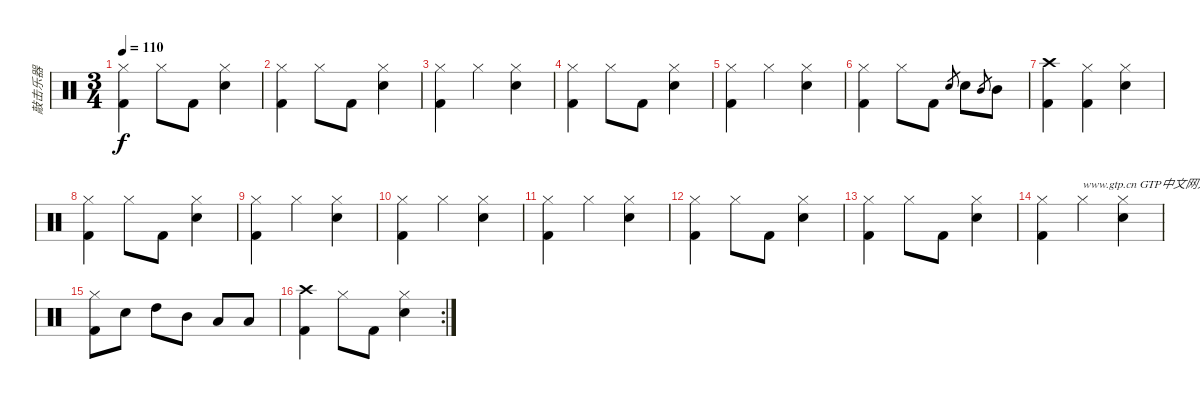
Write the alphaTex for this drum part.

\track ("敲击乐器" "敲击乐器") {instrument percussion}
\staff {score}
\articulation defaults
\ts (3 4)
\tempo 110
\clef neutral
\ks c
("Hi-Hat (closed)" "Kick (hit) 2").4{dy f} "Hi-Hat (closed)".8 "Kick (hit) 2".8 ("Hi-Hat (closed)" "Electric Snare (hit)").4 |
("Hi-Hat (closed)" "Kick (hit) 2").4 "Hi-Hat (closed)".8 "Kick (hit) 2".8 ("Hi-Hat (closed)" "Electric Snare (hit)").4 |
("Hi-Hat (closed)" "Kick (hit) 2").4 "Hi-Hat (closed)".4 ("Hi-Hat (closed)" "Electric Snare (hit)").4 |
("Hi-Hat (closed)" "Kick (hit) 2").4 "Hi-Hat (closed)".8 "Kick (hit) 2".8 ("Hi-Hat (closed)" "Electric Snare (hit)").4 |
("Hi-Hat (closed)" "Kick (hit) 2").4 "Hi-Hat (closed)".4 ("Hi-Hat (closed)" "Electric Snare (hit)").4 |
("Hi-Hat (closed)" "Kick (hit) 2").4 "Hi-Hat (closed)".8 "Kick (hit) 2".8 "Electric Snare (hit)".8{gr} "Electric Snare (hit)".8 "Mid Tom (hit)".8{gr} "Mid Tom (hit)".8 |
("Crash high (hit)" "Kick (hit) 2").4 ("Hi-Hat (closed)" "Kick (hit) 2").4 ("Hi-Hat (closed)" "Electric Snare (hit)").4 |
("Hi-Hat (closed)" "Kick (hit) 2").4 "Hi-Hat (closed)".8 "Kick (hit) 2".8 ("Hi-Hat (closed)" "Electric Snare (hit)").4 |
("Hi-Hat (closed)" "Kick (hit) 2").4 "Hi-Hat (closed)".4 ("Hi-Hat (closed)" "Electric Snare (hit)").4 |
("Hi-Hat (closed)" "Kick (hit) 2").4 "Hi-Hat (closed)".4 ("Hi-Hat (closed)" "Electric Snare (hit)").4 |
("Hi-Hat (closed)" "Kick (hit) 2").4 "Hi-Hat (closed)".4 ("Hi-Hat (closed)" "Electric Snare (hit)").4 |
("Hi-Hat (closed)" "Kick (hit) 2").4 "Hi-Hat (closed)".8 "Kick (hit) 2".8 ("Hi-Hat (closed)" "Electric Snare (hit)").4 |
("Hi-Hat (closed)" "Kick (hit) 2").4 "Hi-Hat (closed)".8 "Kick (hit) 2".8 ("Hi-Hat (closed)" "Electric Snare (hit)").4 |
("Hi-Hat (closed)" "Kick (hit) 2").4 "Hi-Hat (closed)".4{txt "www.gtp.cn GTP中文网为您提供优秀的谱子"} ("Hi-Hat (closed)" "Electric Snare (hit)").4 |
("Hi-Hat (closed)" "Kick (hit) 2").8 "Electric Snare (hit)".8 "High Tom (hit)".8 "Mid Tom (hit)".8 "Low Tom (hit)".8 "Low Tom (hit)".8 |
\rc 2
("Crash high (hit)" "Kick (hit) 2").4 "Hi-Hat (closed)".8 "Kick (hit) 2".8 ("Hi-Hat (closed)" "Electric Snare (hit)").4
